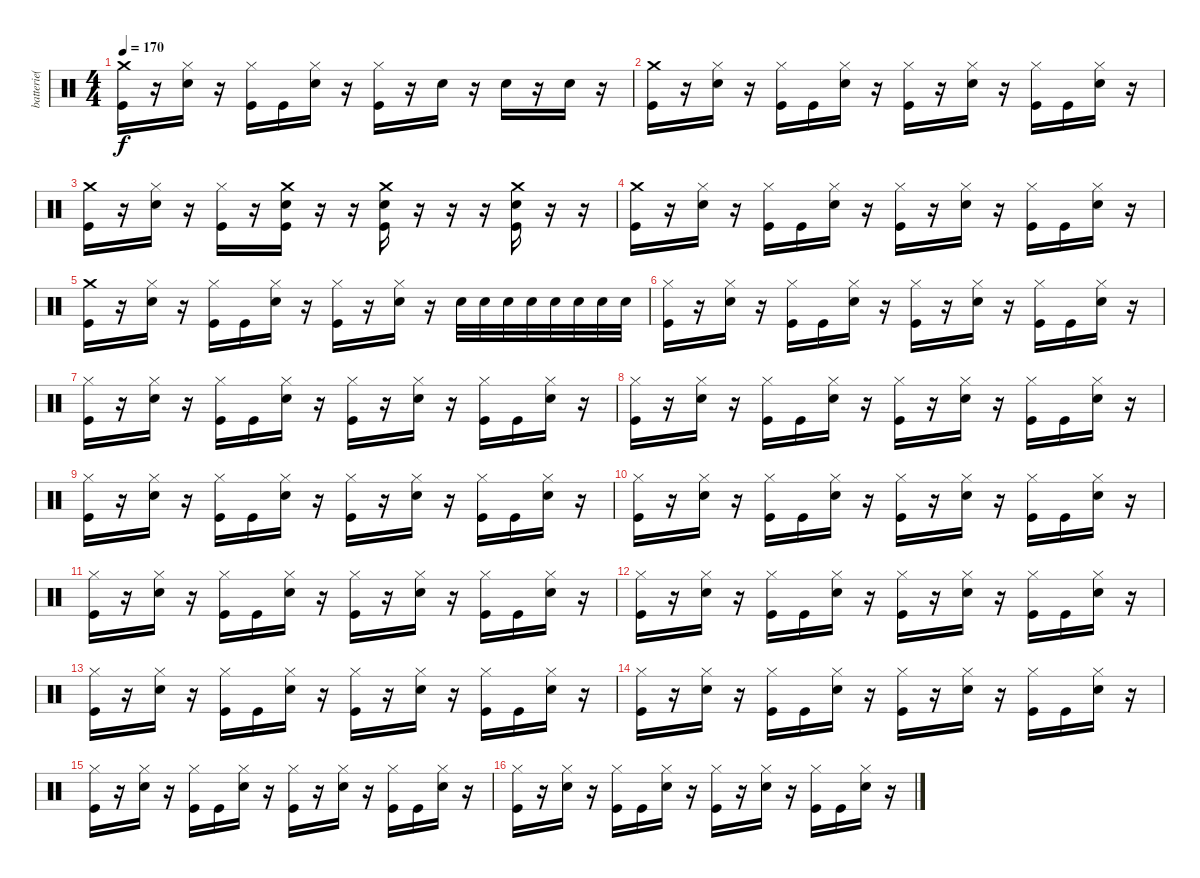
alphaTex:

\track ("batterie( Yureesh )" "batterie( ") {instrument percussion}
\staff {score}
\articulation defaults
\ts (4 4)
\tempo 170
\clef neutral
\ks c
("Crash medium (hit)" "Kick (hit)").16{dy f} r.16 ("Hi-Hat (closed)" "Snare (hit) 2").16 r.16 ("Hi-Hat (closed)" "Kick (hit)").16 "Kick (hit)".16 ("Hi-Hat (closed)" "Snare (hit) 2").16 r.16 ("Hi-Hat (closed)" "Kick (hit)").16 r.16 "Snare (hit) 2".16 r.16 "Snare (hit) 2".16 r.16 "Snare (hit) 2".16 r.16 |
("Crash medium (hit)" "Kick (hit)").16 r.16 ("Hi-Hat (closed)" "Snare (hit) 2").16 r.16 ("Hi-Hat (closed)" "Kick (hit)").16 "Kick (hit)".16 ("Hi-Hat (closed)" "Snare (hit) 2").16 r.16 ("Hi-Hat (closed)" "Kick (hit)").16 r.16 ("Hi-Hat (closed)" "Snare (hit) 2").16 r.16 ("Hi-Hat (closed)" "Kick (hit)").16 "Kick (hit)".16 ("Hi-Hat (closed)" "Snare (hit) 2").16 r.16 |
("Crash medium (hit)" "Kick (hit)").16 r.16 ("Hi-Hat (closed)" "Snare (hit) 2").16 r.16 ("Hi-Hat (closed)" "Kick (hit)").16 r.16 ("Crash medium (hit)" "Snare (hit) 2" "Kick (hit)").16 r.16 r.16 ("Crash medium (hit)" "Snare (hit) 2" "Kick (hit)").16 r.16 r.16 r.16 ("Crash medium (hit)" "Snare (hit) 2" "Kick (hit)").16 r.16 r.16 |
("Crash medium (hit)" "Kick (hit)").16 r.16 ("Hi-Hat (closed)" "Snare (hit) 2").16 r.16 ("Hi-Hat (closed)" "Kick (hit)").16 "Kick (hit)".16 ("Hi-Hat (closed)" "Snare (hit) 2").16 r.16 ("Hi-Hat (closed)" "Kick (hit)").16 r.16 ("Hi-Hat (closed)" "Snare (hit) 2").16 r.16 ("Hi-Hat (closed)" "Kick (hit)").16 "Kick (hit)".16 ("Hi-Hat (closed)" "Snare (hit) 2").16 r.16 |
("Crash medium (hit)" "Kick (hit)").16 r.16 ("Hi-Hat (closed)" "Snare (hit) 2").16 r.16 ("Hi-Hat (closed)" "Kick (hit)").16 "Kick (hit)".16 ("Hi-Hat (closed)" "Snare (hit) 2").16 r.16 ("Hi-Hat (closed)" "Kick (hit)").16 r.16 ("Hi-Hat (closed)" "Snare (hit) 2").16 r.16 "Snare (hit) 2".32 "Snare (hit) 2".32 "Snare (hit) 2".32 "Snare (hit) 2".32 "Snare (hit) 2".32 "Snare (hit) 2".32 "Snare (hit) 2".32 "Snare (hit) 2".32 |
("Hi-Hat (closed)" "Kick (hit)").16 r.16 ("Hi-Hat (closed)" "Snare (hit) 2").16 r.16 ("Hi-Hat (closed)" "Kick (hit)").16 "Kick (hit)".16 ("Hi-Hat (closed)" "Snare (hit) 2").16 r.16 ("Hi-Hat (closed)" "Kick (hit)").16 r.16 ("Hi-Hat (closed)" "Snare (hit) 2").16 r.16 ("Hi-Hat (closed)" "Kick (hit)").16 "Kick (hit)".16 ("Hi-Hat (closed)" "Snare (hit) 2").16 r.16 |
("Hi-Hat (closed)" "Kick (hit)").16 r.16 ("Hi-Hat (closed)" "Snare (hit) 2").16 r.16 ("Hi-Hat (closed)" "Kick (hit)").16 "Kick (hit)".16 ("Hi-Hat (closed)" "Snare (hit) 2").16 r.16 ("Hi-Hat (closed)" "Kick (hit)").16 r.16 ("Hi-Hat (closed)" "Snare (hit) 2").16 r.16 ("Hi-Hat (closed)" "Kick (hit)").16 "Kick (hit)".16 ("Hi-Hat (closed)" "Snare (hit) 2").16 r.16 |
("Hi-Hat (closed)" "Kick (hit)").16 r.16 ("Hi-Hat (closed)" "Snare (hit) 2").16 r.16 ("Hi-Hat (closed)" "Kick (hit)").16 "Kick (hit)".16 ("Hi-Hat (closed)" "Snare (hit) 2").16 r.16 ("Hi-Hat (closed)" "Kick (hit)").16 r.16 ("Hi-Hat (closed)" "Snare (hit) 2").16 r.16 ("Hi-Hat (closed)" "Kick (hit)").16 "Kick (hit)".16 ("Hi-Hat (closed)" "Snare (hit) 2").16 r.16 |
("Hi-Hat (closed)" "Kick (hit)").16 r.16 ("Hi-Hat (closed)" "Snare (hit) 2").16 r.16 ("Hi-Hat (closed)" "Kick (hit)").16 "Kick (hit)".16 ("Hi-Hat (closed)" "Snare (hit) 2").16 r.16 ("Hi-Hat (closed)" "Kick (hit)").16 r.16 ("Hi-Hat (closed)" "Snare (hit) 2").16 r.16 ("Hi-Hat (closed)" "Kick (hit)").16 "Kick (hit)".16 ("Hi-Hat (closed)" "Snare (hit) 2").16 r.16 |
("Hi-Hat (closed)" "Kick (hit)").16 r.16 ("Hi-Hat (closed)" "Snare (hit) 2").16 r.16 ("Hi-Hat (closed)" "Kick (hit)").16 "Kick (hit)".16 ("Hi-Hat (closed)" "Snare (hit) 2").16 r.16 ("Hi-Hat (closed)" "Kick (hit)").16 r.16 ("Hi-Hat (closed)" "Snare (hit) 2").16 r.16 ("Hi-Hat (closed)" "Kick (hit)").16 "Kick (hit)".16 ("Hi-Hat (closed)" "Snare (hit) 2").16 r.16 |
("Hi-Hat (closed)" "Kick (hit)").16 r.16 ("Hi-Hat (closed)" "Snare (hit) 2").16 r.16 ("Hi-Hat (closed)" "Kick (hit)").16 "Kick (hit)".16 ("Hi-Hat (closed)" "Snare (hit) 2").16 r.16 ("Hi-Hat (closed)" "Kick (hit)").16 r.16 ("Hi-Hat (closed)" "Snare (hit) 2").16 r.16 ("Hi-Hat (closed)" "Kick (hit)").16 "Kick (hit)".16 ("Hi-Hat (closed)" "Snare (hit) 2").16 r.16 |
("Hi-Hat (closed)" "Kick (hit)").16 r.16 ("Hi-Hat (closed)" "Snare (hit) 2").16 r.16 ("Hi-Hat (closed)" "Kick (hit)").16 "Kick (hit)".16 ("Hi-Hat (closed)" "Snare (hit) 2").16 r.16 ("Hi-Hat (closed)" "Kick (hit)").16 r.16 ("Hi-Hat (closed)" "Snare (hit) 2").16 r.16 ("Hi-Hat (closed)" "Kick (hit)").16 "Kick (hit)".16 ("Hi-Hat (closed)" "Snare (hit) 2").16 r.16 |
("Hi-Hat (closed)" "Kick (hit)").16 r.16 ("Hi-Hat (closed)" "Snare (hit) 2").16 r.16 ("Hi-Hat (closed)" "Kick (hit)").16 "Kick (hit)".16 ("Hi-Hat (closed)" "Snare (hit) 2").16 r.16 ("Hi-Hat (closed)" "Kick (hit)").16 r.16 ("Hi-Hat (closed)" "Snare (hit) 2").16 r.16 ("Hi-Hat (closed)" "Kick (hit)").16 "Kick (hit)".16 ("Hi-Hat (closed)" "Snare (hit) 2").16 r.16 |
("Hi-Hat (closed)" "Kick (hit)").16 r.16 ("Hi-Hat (closed)" "Snare (hit) 2").16 r.16 ("Hi-Hat (closed)" "Kick (hit)").16 "Kick (hit)".16 ("Hi-Hat (closed)" "Snare (hit) 2").16 r.16 ("Hi-Hat (closed)" "Kick (hit)").16 r.16 ("Hi-Hat (closed)" "Snare (hit) 2").16 r.16 ("Hi-Hat (closed)" "Kick (hit)").16 "Kick (hit)".16 ("Hi-Hat (closed)" "Snare (hit) 2").16 r.16 |
("Hi-Hat (closed)" "Kick (hit)").16 r.16 ("Hi-Hat (closed)" "Snare (hit) 2").16 r.16 ("Hi-Hat (closed)" "Kick (hit)").16 "Kick (hit)".16 ("Hi-Hat (closed)" "Snare (hit) 2").16 r.16 ("Hi-Hat (closed)" "Kick (hit)").16 r.16 ("Hi-Hat (closed)" "Snare (hit) 2").16 r.16 ("Hi-Hat (closed)" "Kick (hit)").16 "Kick (hit)".16 ("Hi-Hat (closed)" "Snare (hit) 2").16 r.16 |
("Hi-Hat (closed)" "Kick (hit)").16 r.16 ("Hi-Hat (closed)" "Snare (hit) 2").16 r.16 ("Hi-Hat (closed)" "Kick (hit)").16 "Kick (hit)".16 ("Hi-Hat (closed)" "Snare (hit) 2").16 r.16 ("Hi-Hat (closed)" "Kick (hit)").16 r.16 ("Hi-Hat (closed)" "Snare (hit) 2").16 r.16 ("Hi-Hat (closed)" "Kick (hit)").16 "Kick (hit)".16 ("Hi-Hat (closed)" "Snare (hit) 2").16 r.16
